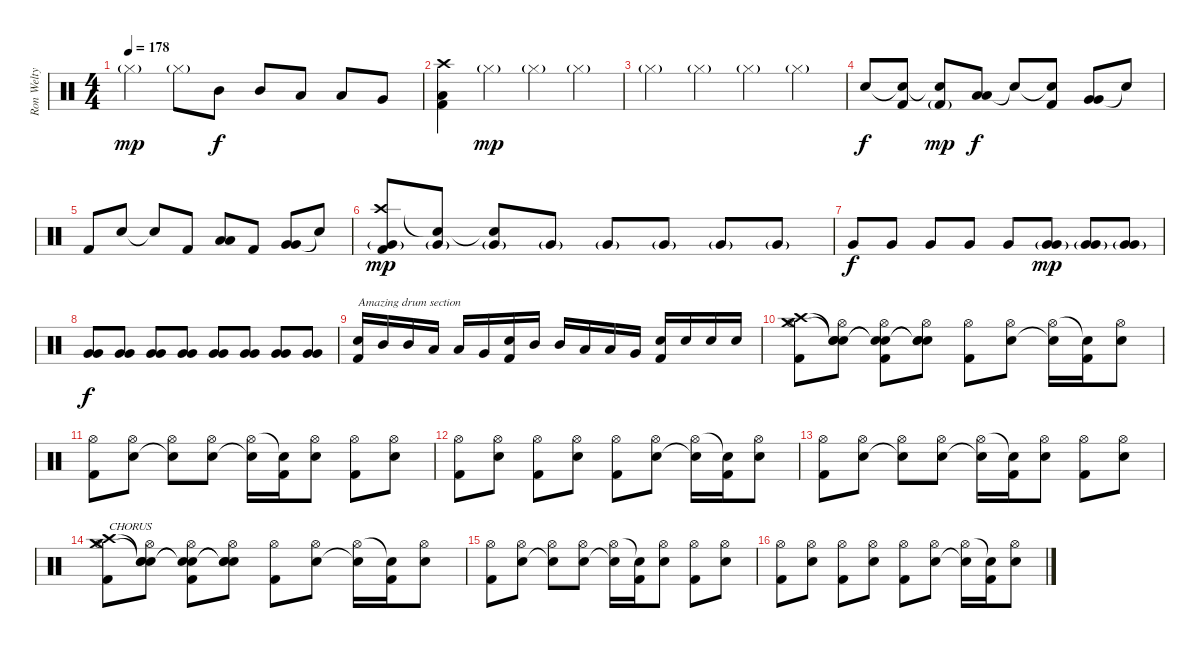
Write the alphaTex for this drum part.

\track ("Ron Welty (Drums)" "Ron Welty ") {instrument percussion}
\staff {score}
\articulation defaults
\ts (4 4)
\tempo 178
\clef neutral
\ks c "Hi-Hat (closed)"{g}.4{dy mp} "Hi-Hat (closed)"{g}.8 "Mid Tom (hit)".8{dy f} "Mid Tom (hit)".8 "Low Tom (hit)".8 "Low Tom (hit)".8 "Very Low Tom (hit)".8
|
("Crash high (hit)" "Low Floor Tom (hit)" "Kick (hit) 2").4 "Hi-Hat (closed)"{g}.4{dy mp} "Hi-Hat (closed)"{g}.4 "Hi-Hat (closed)"{g}.4 |
"Hi-Hat (closed)"{g}.4 "Hi-Hat (closed)"{g}.4 "Hi-Hat (closed)"{g}.4 "Hi-Hat (closed)"{g}.4 |
"Electric Snare (hit)".8{dy f} ("Snare (hit)"{t} "Kick (hit) 2").8 ("Snare (hit)"{t} "Kick (hit) 2"{g}).8{dy mp} ("Low Tom (hit)" "Low Tom (hit)").8{dy f} "Snare (hit)"{t}.8 ("Snare (hit)"{t} "Kick (hit) 2").8 ("Very Low Tom (hit)" "Very Low Tom (hit)").8 "Snare (hit)"{t}.8 |
"Kick (hit) 2".8 "Electric Snare (hit)".8 "Snare (hit)"{t}.8 "Kick (hit) 2".8 ("Low Tom (hit)" "Low Tom (hit)").8 "Kick (hit) 2".8 ("Very Low Tom (hit)" "Very Low Tom (hit)").8 "Snare (hit)"{t}.8 |
("Crash high (hit)" "Very Low Tom (hit)"{g} "Kick (hit) 2").8{dy mp} ("Snare (hit)"{t} "Very Low Tom (hit)"{g}).8 ("Snare (hit)"{t} "Very Low Tom (hit)"{g}).8 "Very Low Tom (hit)"{g}.8 "Very Low Tom (hit)"{g}.8 "Very Low Tom (hit)"{g}.8 "Very Low Tom (hit)"{g}.8 "Very Low Tom (hit)"{g}.8 |
"Very Low Tom (hit)".8{dy f} "Very Low Tom (hit)".8 "Very Low Tom (hit)".8 "Very Low Tom (hit)".8 "Very Low Tom (hit)".8 ("Very Low Tom (hit)"{g} "Very Low Tom (hit)").8{dy mp} ("Very Low Tom (hit)"{g} "Very Low Tom (hit)").8 ("Very Low Tom (hit)"{g} "Very Low Tom (hit)").8 |
("Very Low Tom (hit)" "Very Low Tom (hit)").8{dy f} ("Very Low Tom (hit)" "Very Low Tom (hit)").8 ("Very Low Tom (hit)" "Very Low Tom (hit)").8 ("Very Low Tom (hit)" "Very Low Tom (hit)").8 ("Very Low Tom (hit)" "Very Low Tom (hit)").8 ("Very Low Tom (hit)" "Very Low Tom (hit)").8 ("Very Low Tom (hit)" "Very Low Tom (hit)").8 ("Very Low Tom (hit)" "Very Low Tom (hit)").8 |
("Electric Snare (hit)" "Kick (hit) 2").16{txt "Amazing drum section" volume 16} "Mid Tom (hit)".16 "Mid Tom (hit)".16 "Low Tom (hit)".16 "Low Tom (hit)".16 "Very Low Tom (hit)".16 ("Electric Snare (hit)" "Kick (hit) 2").16 "Mid Tom (hit)".16 "Mid Tom (hit)".16 "Low Tom (hit)".16 "Low Tom (hit)".16 "Very Low Tom (hit)".16 ("Electric Snare (hit)" "Kick (hit) 2").16 "Electric Snare (hit)".16 "Electric Snare (hit)".16 "Electric Snare (hit)".16 |
("Crash medium (hit)" "Crash high (hit)" "Hi-Hat (open)" "Kick (hit) 2").8 ("Snare (hit)"{t} "Snare (hit)"{t} "Hi-Hat (open)" "Electric Snare (hit)").8 ("Snare (hit)"{t} "Snare (hit)"{t} "Hi-Hat (open)" "Kick (hit) 2").8 ("Snare (hit)"{t} "Snare (hit)"{t} "Hi-Hat (open)" "Electric Snare (hit)").8 ("Hi-Hat (open)" "Kick (hit) 2").8 ("Hi-Hat (open)" "Electric Snare (hit)").8 ("Hi-Hat (open)" "Snare (hit)"{t}).16 ("Snare (hit)"{t} "Kick (hit) 2").16 ("Hi-Hat (open)" "Electric Snare (hit)").8 |
("Hi-Hat (open)" "Kick (hit) 2").8 ("Hi-Hat (open)" "Electric Snare (hit)").8 ("Hi-Hat (open)" "Snare (hit)"{t}).8 ("Hi-Hat (open)" "Electric Snare (hit)").8 ("Hi-Hat (open)" "Snare (hit)"{t}).16 ("Snare (hit)"{t} "Kick (hit) 2").16 ("Hi-Hat (open)" "Electric Snare (hit)").8 ("Hi-Hat (open)" "Kick (hit) 2").8 ("Hi-Hat (open)" "Electric Snare (hit)").8 |
("Hi-Hat (open)" "Kick (hit) 2").8 ("Hi-Hat (open)" "Electric Snare (hit)").8 ("Hi-Hat (open)" "Kick (hit) 2").8 ("Hi-Hat (open)" "Electric Snare (hit)").8 ("Hi-Hat (open)" "Kick (hit) 2").8 ("Hi-Hat (open)" "Electric Snare (hit)").8 ("Hi-Hat (open)" "Snare (hit)"{t}).16 ("Snare (hit)"{t} "Kick (hit) 2").16 ("Hi-Hat (open)" "Electric Snare (hit)").8 |
("Hi-Hat (open)" "Kick (hit) 2").8 ("Hi-Hat (open)" "Electric Snare (hit)").8 ("Hi-Hat (open)" "Snare (hit)"{t}).8 ("Hi-Hat (open)" "Electric Snare (hit)").8 ("Hi-Hat (open)" "Snare (hit)"{t}).16 ("Snare (hit)"{t} "Kick (hit) 2").16 ("Hi-Hat (open)" "Electric Snare (hit)").8 ("Hi-Hat (open)" "Kick (hit) 2").8 ("Hi-Hat (open)" "Electric Snare (hit)").8 |
("Crash medium (hit)" "Crash high (hit)" "Hi-Hat (open)" "Kick (hit) 2").8{txt "CHORUS"} ("Snare (hit)"{t} "Snare (hit)"{t} "Hi-Hat (open)" "Electric Snare (hit)").8 ("Snare (hit)"{t} "Snare (hit)"{t} "Hi-Hat (open)" "Kick (hit) 2").8 ("Snare (hit)"{t} "Snare (hit)"{t} "Hi-Hat (open)" "Electric Snare (hit)").8 ("Hi-Hat (open)" "Kick (hit) 2").8 ("Hi-Hat (open)" "Electric Snare (hit)").8 ("Hi-Hat (open)" "Snare (hit)"{t}).16 ("Snare (hit)"{t} "Kick (hit) 2").16 ("Hi-Hat (open)" "Electric Snare (hit)").8 |
("Hi-Hat (open)" "Kick (hit) 2").8 ("Hi-Hat (open)" "Electric Snare (hit)").8 ("Hi-Hat (open)" "Snare (hit)"{t}).8 ("Hi-Hat (open)" "Electric Snare (hit)").8 ("Hi-Hat (open)" "Snare (hit)"{t}).16 ("Snare (hit)"{t} "Kick (hit) 2").16 ("Hi-Hat (open)" "Electric Snare (hit)").8 ("Hi-Hat (open)" "Kick (hit) 2").8 ("Hi-Hat (open)" "Electric Snare (hit)").8 |
("Hi-Hat (open)" "Kick (hit) 2").8 ("Hi-Hat (open)" "Electric Snare (hit)").8 ("Hi-Hat (open)" "Kick (hit) 2").8 ("Hi-Hat (open)" "Electric Snare (hit)").8 ("Hi-Hat (open)" "Kick (hit) 2").8 ("Hi-Hat (open)" "Electric Snare (hit)").8 ("Hi-Hat (open)" "Snare (hit)"{t}).16 ("Snare (hit)"{t} "Kick (hit) 2").16 ("Hi-Hat (open)" "Electric Snare (hit)").8
